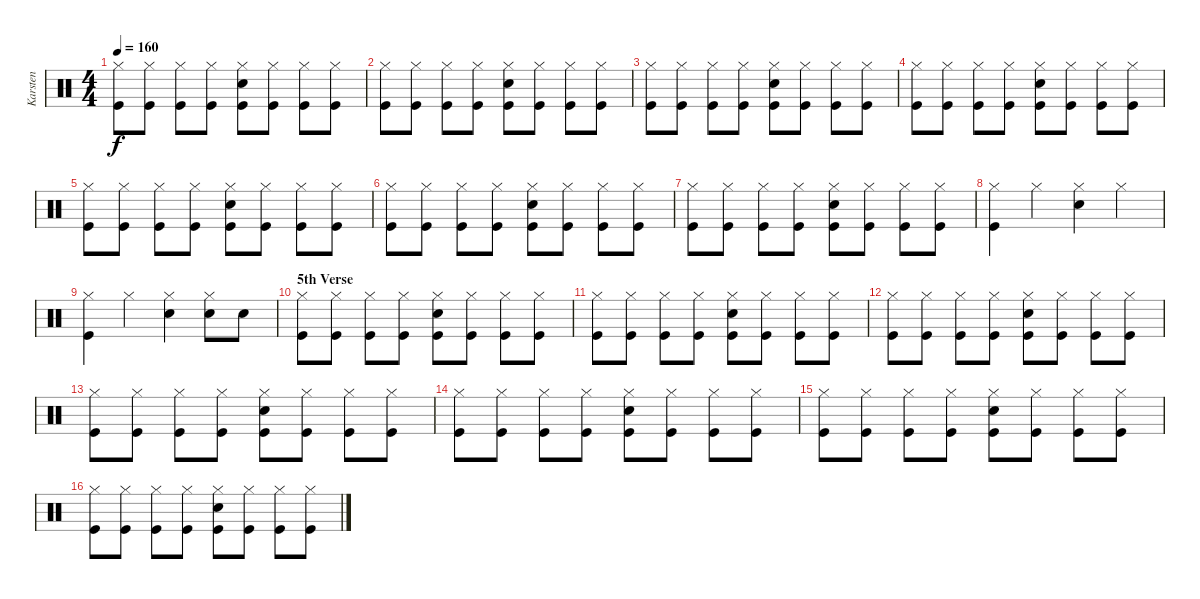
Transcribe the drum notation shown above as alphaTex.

\track ("Karsten" "Karsten") {instrument percussion}
\staff {score}
\articulation defaults
\ts (4 4)
\tempo 160
\clef neutral
\ks c
("Hi-Hat (closed)" "Kick (hit)").8{dy f} ("Hi-Hat (closed)" "Kick (hit)").8 ("Hi-Hat (closed)" "Kick (hit)").8 ("Hi-Hat (closed)" "Kick (hit)").8 ("Hi-Hat (closed)" "Snare (hit) 2" "Kick (hit)").8 ("Hi-Hat (closed)" "Kick (hit)").8 ("Hi-Hat (closed)" "Kick (hit)").8 ("Hi-Hat (closed)" "Kick (hit)").8 |
("Hi-Hat (closed)" "Kick (hit)").8 ("Hi-Hat (closed)" "Kick (hit)").8 ("Hi-Hat (closed)" "Kick (hit)").8 ("Hi-Hat (closed)" "Kick (hit)").8 ("Hi-Hat (closed)" "Snare (hit) 2" "Kick (hit)").8 ("Hi-Hat (closed)" "Kick (hit)").8 ("Hi-Hat (closed)" "Kick (hit)").8 ("Hi-Hat (closed)" "Kick (hit)").8 |
("Hi-Hat (closed)" "Kick (hit)").8 ("Hi-Hat (closed)" "Kick (hit)").8 ("Hi-Hat (closed)" "Kick (hit)").8 ("Hi-Hat (closed)" "Kick (hit)").8 ("Hi-Hat (closed)" "Snare (hit) 2" "Kick (hit)").8 ("Hi-Hat (closed)" "Kick (hit)").8 ("Hi-Hat (closed)" "Kick (hit)").8 ("Hi-Hat (closed)" "Kick (hit)").8 |
("Hi-Hat (closed)" "Kick (hit)").8 ("Hi-Hat (closed)" "Kick (hit)").8 ("Hi-Hat (closed)" "Kick (hit)").8 ("Hi-Hat (closed)" "Kick (hit)").8 ("Hi-Hat (closed)" "Snare (hit) 2" "Kick (hit)").8 ("Hi-Hat (closed)" "Kick (hit)").8 ("Hi-Hat (closed)" "Kick (hit)").8 ("Hi-Hat (closed)" "Kick (hit)").8 |
("Hi-Hat (closed)" "Kick (hit)").8 ("Hi-Hat (closed)" "Kick (hit)").8 ("Hi-Hat (closed)" "Kick (hit)").8 ("Hi-Hat (closed)" "Kick (hit)").8 ("Hi-Hat (closed)" "Snare (hit) 2" "Kick (hit)").8 ("Hi-Hat (closed)" "Kick (hit)").8 ("Hi-Hat (closed)" "Kick (hit)").8 ("Hi-Hat (closed)" "Kick (hit)").8 |
("Hi-Hat (closed)" "Kick (hit)").8 ("Hi-Hat (closed)" "Kick (hit)").8 ("Hi-Hat (closed)" "Kick (hit)").8 ("Hi-Hat (closed)" "Kick (hit)").8 ("Hi-Hat (closed)" "Snare (hit) 2" "Kick (hit)").8 ("Hi-Hat (closed)" "Kick (hit)").8 ("Hi-Hat (closed)" "Kick (hit)").8 ("Hi-Hat (closed)" "Kick (hit)").8 |
("Hi-Hat (closed)" "Kick (hit)").8 ("Hi-Hat (closed)" "Kick (hit)").8 ("Hi-Hat (closed)" "Kick (hit)").8 ("Hi-Hat (closed)" "Kick (hit)").8 ("Hi-Hat (closed)" "Snare (hit) 2" "Kick (hit)").8 ("Hi-Hat (closed)" "Kick (hit)").8 ("Hi-Hat (closed)" "Kick (hit)").8 ("Hi-Hat (closed)" "Kick (hit)").8 |
("Hi-Hat (closed)" "Kick (hit)").4 "Hi-Hat (closed)".4 ("Hi-Hat (closed)" "Snare (hit) 2").4 "Hi-Hat (closed)".4 |
("Hi-Hat (closed)" "Kick (hit)").4 "Hi-Hat (closed)".4 ("Hi-Hat (closed)" "Snare (hit) 2").4 ("Hi-Hat (closed)" "Snare (hit) 2").8 "Snare (hit) 2".8 |
\section ("" "5th Verse")
("Hi-Hat (closed)" "Kick (hit)").8 ("Hi-Hat (closed)" "Kick (hit)").8 ("Hi-Hat (closed)" "Kick (hit)").8 ("Hi-Hat (closed)" "Kick (hit)").8 ("Hi-Hat (closed)" "Snare (hit) 2" "Kick (hit)").8 ("Hi-Hat (closed)" "Kick (hit)").8 ("Hi-Hat (closed)" "Kick (hit)").8 ("Hi-Hat (closed)" "Kick (hit)").8 |
("Hi-Hat (closed)" "Kick (hit)").8 ("Hi-Hat (closed)" "Kick (hit)").8 ("Hi-Hat (closed)" "Kick (hit)").8 ("Hi-Hat (closed)" "Kick (hit)").8 ("Hi-Hat (closed)" "Snare (hit) 2" "Kick (hit)").8 ("Hi-Hat (closed)" "Kick (hit)").8 ("Hi-Hat (closed)" "Kick (hit)").8 ("Hi-Hat (closed)" "Kick (hit)").8 |
("Hi-Hat (closed)" "Kick (hit)").8 ("Hi-Hat (closed)" "Kick (hit)").8 ("Hi-Hat (closed)" "Kick (hit)").8 ("Hi-Hat (closed)" "Kick (hit)").8 ("Hi-Hat (closed)" "Snare (hit) 2" "Kick (hit)").8 ("Hi-Hat (closed)" "Kick (hit)").8 ("Hi-Hat (closed)" "Kick (hit)").8 ("Hi-Hat (closed)" "Kick (hit)").8 |
("Hi-Hat (closed)" "Kick (hit)").8 ("Hi-Hat (closed)" "Kick (hit)").8 ("Hi-Hat (closed)" "Kick (hit)").8 ("Hi-Hat (closed)" "Kick (hit)").8 ("Hi-Hat (closed)" "Snare (hit) 2" "Kick (hit)").8 ("Hi-Hat (closed)" "Kick (hit)").8 ("Hi-Hat (closed)" "Kick (hit)").8 ("Hi-Hat (closed)" "Kick (hit)").8 |
("Hi-Hat (closed)" "Kick (hit)").8 ("Hi-Hat (closed)" "Kick (hit)").8 ("Hi-Hat (closed)" "Kick (hit)").8 ("Hi-Hat (closed)" "Kick (hit)").8 ("Hi-Hat (closed)" "Snare (hit) 2" "Kick (hit)").8 ("Hi-Hat (closed)" "Kick (hit)").8 ("Hi-Hat (closed)" "Kick (hit)").8 ("Hi-Hat (closed)" "Kick (hit)").8 |
("Hi-Hat (closed)" "Kick (hit)").8 ("Hi-Hat (closed)" "Kick (hit)").8 ("Hi-Hat (closed)" "Kick (hit)").8 ("Hi-Hat (closed)" "Kick (hit)").8 ("Hi-Hat (closed)" "Snare (hit) 2" "Kick (hit)").8 ("Hi-Hat (closed)" "Kick (hit)").8 ("Hi-Hat (closed)" "Kick (hit)").8 ("Hi-Hat (closed)" "Kick (hit)").8 |
("Hi-Hat (closed)" "Kick (hit)").8 ("Hi-Hat (closed)" "Kick (hit)").8 ("Hi-Hat (closed)" "Kick (hit)").8 ("Hi-Hat (closed)" "Kick (hit)").8 ("Hi-Hat (closed)" "Snare (hit) 2" "Kick (hit)").8 ("Hi-Hat (closed)" "Kick (hit)").8 ("Hi-Hat (closed)" "Kick (hit)").8 ("Hi-Hat (closed)" "Kick (hit)").8
